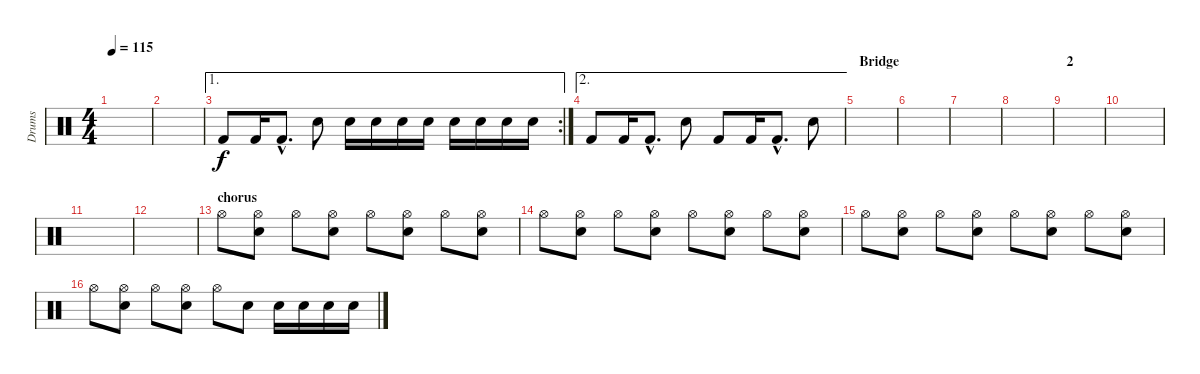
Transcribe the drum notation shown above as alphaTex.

\track ("Drums" "Drums") {instrument percussion}
\staff {score}
\articulation defaults
\ts (4 4)
\tempo 115
\clef neutral
\ks c
|
|
\ae 1
\rc 2 "Kick (hit) 2".8 "Kick (hit) 2".16 "Kick (hit) 2"{hac}.8{d} "Snare (hit) 2".8 "Snare (hit) 2".16 "Snare (hit) 2".16 "Snare (hit) 2".16 "Snare (hit) 2".16 "Snare (hit) 2".16 "Snare (hit) 2".16 "Snare (hit) 2".16 "Snare (hit) 2".16
|
\ae 2 "Kick (hit) 2".8 "Kick (hit) 2".16 "Kick (hit) 2"{hac}.8{d} "Snare (hit) 2".8 "Kick (hit) 2".8 "Kick (hit) 2".16 "Kick (hit) 2"{hac}.8{d} "Snare (hit) 2".8
|
\section ("" "Bridge")
|
|
|
|
\section ("" "2")
|
|
|
|
\section ("" "chorus")
"Hi-Hat (open)".8 ("Hi-Hat (open)" "Snare (hit) 2").8 "Hi-Hat (open)".8 ("Hi-Hat (open)" "Snare (hit) 2").8 "Hi-Hat (open)".8 ("Hi-Hat (open)" "Snare (hit) 2").8 "Hi-Hat (open)".8 ("Hi-Hat (open)" "Snare (hit) 2").8 |
"Hi-Hat (open)".8 ("Hi-Hat (open)" "Snare (hit) 2").8 "Hi-Hat (open)".8 ("Hi-Hat (open)" "Snare (hit) 2").8 "Hi-Hat (open)".8 ("Hi-Hat (open)" "Snare (hit) 2").8 "Hi-Hat (open)".8 ("Hi-Hat (open)" "Snare (hit) 2").8 |
"Hi-Hat (open)".8 ("Hi-Hat (open)" "Snare (hit) 2").8 "Hi-Hat (open)".8 ("Hi-Hat (open)" "Snare (hit) 2").8 "Hi-Hat (open)".8 ("Hi-Hat (open)" "Snare (hit) 2").8 "Hi-Hat (open)".8 ("Hi-Hat (open)" "Snare (hit) 2").8 |
"Hi-Hat (open)".8 ("Hi-Hat (open)" "Snare (hit) 2").8 "Hi-Hat (open)".8 ("Hi-Hat (open)" "Snare (hit) 2").8 "Hi-Hat (open)".8 "Snare (hit) 2".8 "Snare (hit) 2".16 "Snare (hit) 2".16 "Snare (hit) 2".16 "Snare (hit) 2".16
